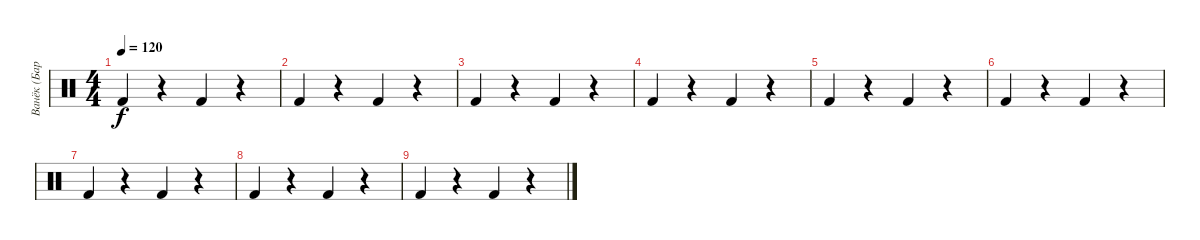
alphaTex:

\track ("Ванёк (Барабанщик)" "Ванёк (Бар") {instrument percussion}
\staff {score}
\articulation defaults
\ts (4 4)
\tempo 120
\clef neutral
\ks c "Kick (hit) 2".4{dy f}
r.4 "Kick (hit) 2".4 r.4 |
"Kick (hit) 2".4 r.4 "Kick (hit) 2".4 r.4 |
"Kick (hit) 2".4 r.4 "Kick (hit) 2".4 r.4 |
"Kick (hit) 2".4 r.4 "Kick (hit) 2".4 r.4 |
"Kick (hit) 2".4 r.4 "Kick (hit) 2".4 r.4 |
"Kick (hit) 2".4 r.4 "Kick (hit) 2".4 r.4 |
"Kick (hit) 2".4 r.4 "Kick (hit) 2".4 r.4 |
"Kick (hit) 2".4 r.4 "Kick (hit) 2".4 r.4 |
"Kick (hit) 2".4 r.4 "Kick (hit) 2".4 r.4
